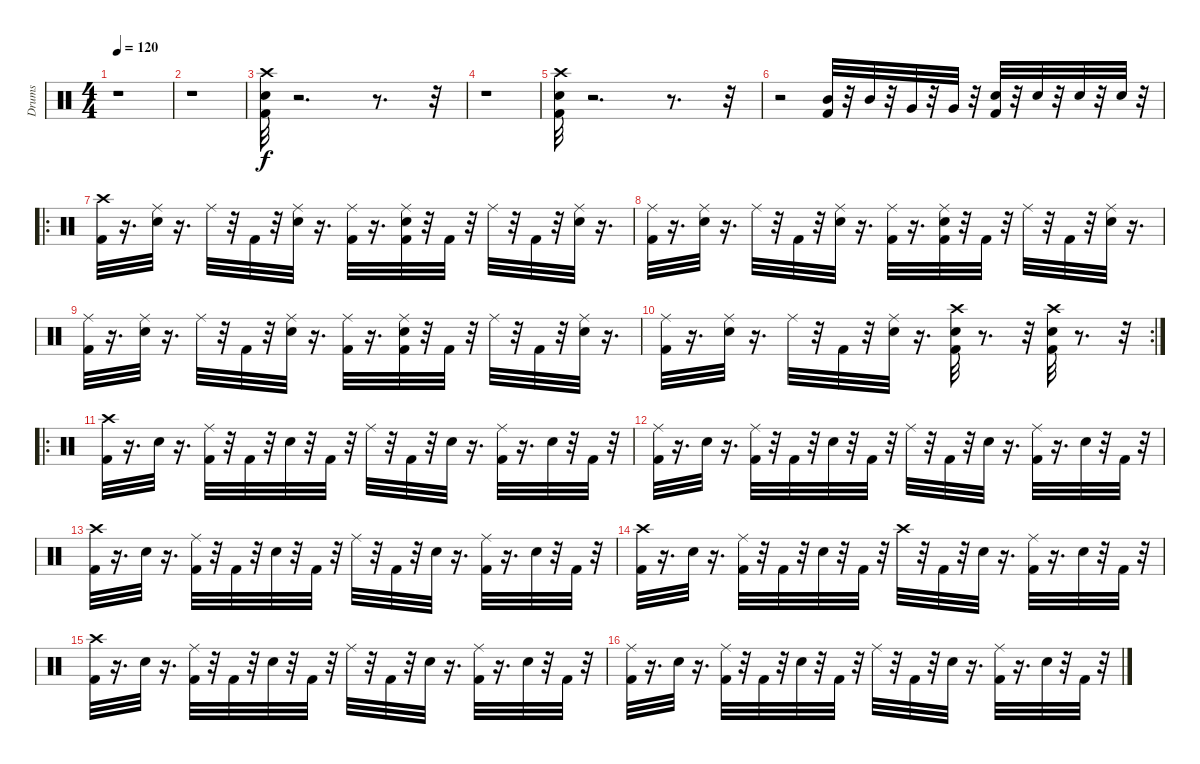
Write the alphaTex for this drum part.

\track ("Drums" "Drums") {instrument percussion}
\staff {score}
\articulation defaults
\ts (4 4)
\tempo 120
\clef neutral
\ks c
r.1{dy f} |
r.1 |
("Crash high (hit)" "Kick (hit) 2" "Snare (hit) 2").32 r.2{d} r.8{d} r.32 |
r.1 |
("Snare (hit) 2" "Kick (hit) 2" "Crash high (hit)").32 r.2{d} r.8{d} r.32 |
r.2 ("Mid Tom (hit)" "Kick (hit) 2").32 r.32 "Mid Tom (hit)".32 r.32 "Very Low Tom (hit)".32 r.32 "Very Low Tom (hit)".32 r.32 ("Snare (hit) 2" "Kick (hit) 2").32 r.32 "Snare (hit) 2".32 r.32 "Snare (hit) 2".32 r.32 "Snare (hit) 2".32 r.32 |
\ro
("Kick (hit) 2" "Crash high (hit)").32 r.16{d} ("Snare (hit) 2" "Ride (middle)").32 r.16{d} "Ride (middle)".32 r.32 "Kick (hit) 2".32 r.32 ("Snare (hit) 2" "Ride (middle)").32 r.16{d} ("Kick (hit) 2" "Ride (middle)").32 r.16{d} ("Ride (middle)" "Kick (hit) 2" "Snare (hit) 2").32 r.32 "Kick (hit) 2".32 r.32 "Ride (middle)".32 r.32 "Kick (hit) 2".32 r.32 ("Snare (hit) 2" "Ride (middle)").32 r.16{d} |
("Ride (middle)" "Kick (hit) 2").32 r.16{d} ("Snare (hit) 2" "Ride (middle)").32 r.16{d} "Ride (middle)".32 r.32 "Kick (hit) 2".32 r.32 ("Snare (hit) 2" "Ride (middle)").32 r.16{d} ("Kick (hit) 2" "Ride (middle)").32 r.16{d} ("Ride (middle)" "Kick (hit) 2" "Snare (hit) 2").32 r.32 "Kick (hit) 2".32 r.32 "Ride (middle)".32 r.32 "Kick (hit) 2".32 r.32 ("Snare (hit) 2" "Ride (middle)").32 r.16{d} |
("Ride (middle)" "Kick (hit) 2").32 r.16{d} ("Snare (hit) 2" "Ride (middle)").32 r.16{d} "Ride (middle)".32 r.32 "Kick (hit) 2".32 r.32 ("Snare (hit) 2" "Ride (middle)").32 r.16{d} ("Kick (hit) 2" "Ride (middle)").32 r.16{d} ("Ride (middle)" "Kick (hit) 2" "Snare (hit) 2").32 r.32 "Kick (hit) 2".32 r.32 "Ride (middle)".32 r.32 "Kick (hit) 2".32 r.32 ("Snare (hit) 2" "Ride (middle)").32 r.16{d} |
\rc 2
("Ride (middle)" "Kick (hit) 2").32 r.16{d} ("Snare (hit) 2" "Ride (middle)").32 r.16{d} "Ride (middle)".32 r.32 "Kick (hit) 2".32 r.32 ("Snare (hit) 2" "Ride (middle)").32 r.16{d} ("Kick (hit) 2" "Snare (hit) 2" "Crash high (hit)").32 r.8{d} r.32 ("Crash high (hit)" "Kick (hit) 2" "Snare (hit) 2").32 r.8{d} r.32 |
\ro
("Kick (hit) 2" "Crash high (hit)").32 r.16{d} "Snare (hit) 2".32 r.16{d} ("Kick (hit) 2" "Ride (middle)").32 r.32 "Kick (hit) 2".32 r.32 "Snare (hit) 2".32 r.32 "Kick (hit) 2".32 r.32 "Ride (middle)".32 r.32 "Kick (hit) 2".32 r.32 "Snare (hit) 2".32 r.16{d} ("Kick (hit) 2" "Ride (middle)").32 r.16{d} "Snare (hit) 2".32 r.32 "Kick (hit) 2".32 r.32 |
("Ride (middle)" "Kick (hit) 2").32 r.16{d} "Snare (hit) 2".32 r.16{d} ("Kick (hit) 2" "Ride (middle)").32 r.32 "Kick (hit) 2".32 r.32 "Snare (hit) 2".32 r.32 "Kick (hit) 2".32 r.32 "Ride (middle)".32 r.32 "Kick (hit) 2".32 r.32 "Snare (hit) 2".32 r.16{d} ("Kick (hit) 2" "Ride (middle)").32 r.16{d} "Snare (hit) 2".32 r.32 "Kick (hit) 2".32 r.32 |
("Crash high (hit)" "Kick (hit) 2").32 r.16{d} "Snare (hit) 2".32 r.16{d} ("Kick (hit) 2" "Ride (middle)").32 r.32 "Kick (hit) 2".32 r.32 "Snare (hit) 2".32 r.32 "Kick (hit) 2".32 r.32 "Ride (middle)".32 r.32 "Kick (hit) 2".32 r.32 "Snare (hit) 2".32 r.16{d} ("Kick (hit) 2" "Ride (middle)").32 r.16{d} "Snare (hit) 2".32 r.32 "Kick (hit) 2".32 r.32 |
("Crash high (hit)" "Kick (hit) 2").32 r.16{d} "Snare (hit) 2".32 r.16{d} ("Kick (hit) 2" "Ride (middle)").32 r.32 "Kick (hit) 2".32 r.32 "Snare (hit) 2".32 r.32 "Kick (hit) 2".32 r.32 "Crash high (hit)".32 r.32 "Kick (hit) 2".32 r.32 "Snare (hit) 2".32 r.16{d} ("Kick (hit) 2" "Ride (middle)").32 r.16{d} "Snare (hit) 2".32 r.32 "Kick (hit) 2".32 r.32 |
("Kick (hit) 2" "Crash high (hit)").32 r.16{d} "Snare (hit) 2".32 r.16{d} ("Kick (hit) 2" "Ride (middle)").32 r.32 "Kick (hit) 2".32 r.32 "Snare (hit) 2".32 r.32 "Kick (hit) 2".32 r.32 "Ride (middle)".32 r.32 "Kick (hit) 2".32 r.32 "Snare (hit) 2".32 r.16{d} ("Kick (hit) 2" "Ride (middle)").32 r.16{d} "Snare (hit) 2".32 r.32 "Kick (hit) 2".32 r.32 |
("Ride (middle)" "Kick (hit) 2").32 r.16{d} "Snare (hit) 2".32 r.16{d} ("Kick (hit) 2" "Ride (middle)").32 r.32 "Kick (hit) 2".32 r.32 "Snare (hit) 2".32 r.32 "Kick (hit) 2".32 r.32 "Ride (middle)".32 r.32 "Kick (hit) 2".32 r.32 "Snare (hit) 2".32 r.16{d} ("Kick (hit) 2" "Ride (middle)").32 r.16{d} "Snare (hit) 2".32 r.32 "Kick (hit) 2".32 r.32
